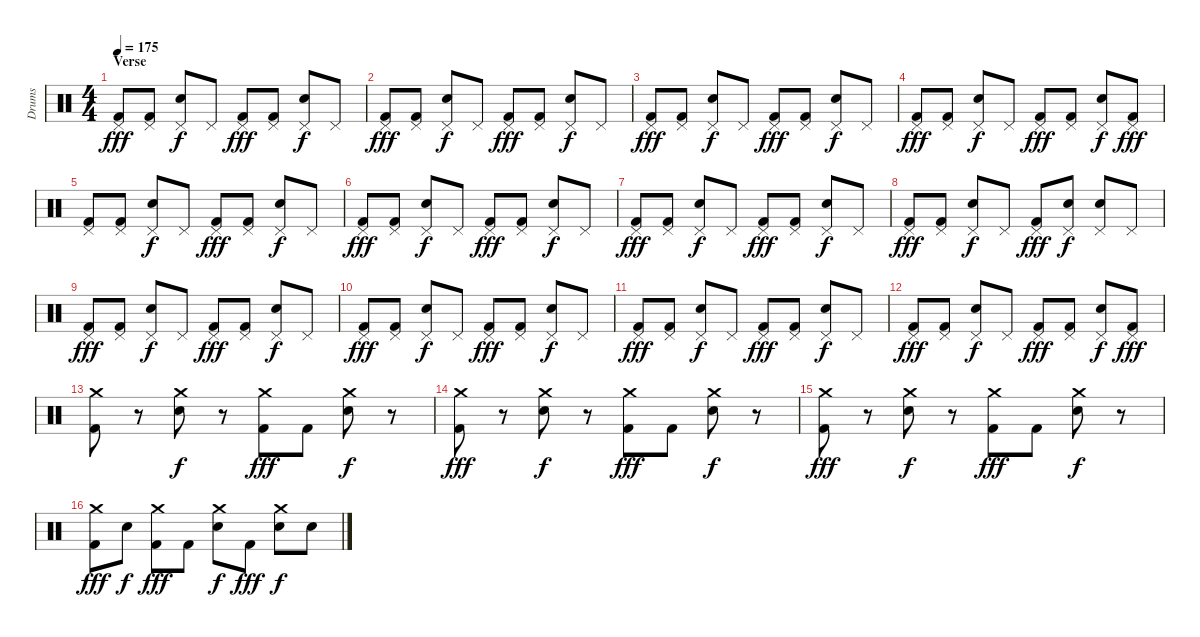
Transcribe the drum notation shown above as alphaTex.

\track ("Drums" "Drums") {instrument percussion}
\staff {score}
\articulation defaults
\ts (4 4)
\section ("" "Verse")
\tempo 175
\clef neutral
\ks c
("Pedal Hi-Hat (hit)" "Kick (hit) 2").8{dy fff} ("Pedal Hi-Hat (hit)" "Kick (hit) 2").8 ("Pedal Hi-Hat (hit)" "Electric Snare (hit)").8{dy f} "Pedal Hi-Hat (hit)".8 ("Pedal Hi-Hat (hit)" "Kick (hit) 2").8{dy fff} ("Pedal Hi-Hat (hit)" "Kick (hit) 2").8 ("Pedal Hi-Hat (hit)" "Electric Snare (hit)").8{dy f} "Pedal Hi-Hat (hit)".8 |
("Pedal Hi-Hat (hit)" "Kick (hit) 2").8{dy fff} ("Pedal Hi-Hat (hit)" "Kick (hit) 2").8 ("Pedal Hi-Hat (hit)" "Electric Snare (hit)").8{dy f} "Pedal Hi-Hat (hit)".8 ("Pedal Hi-Hat (hit)" "Kick (hit) 2").8{dy fff} ("Pedal Hi-Hat (hit)" "Kick (hit) 2").8 ("Pedal Hi-Hat (hit)" "Electric Snare (hit)").8{dy f} "Pedal Hi-Hat (hit)".8 |
("Pedal Hi-Hat (hit)" "Kick (hit) 2").8{dy fff} ("Pedal Hi-Hat (hit)" "Kick (hit) 2").8 ("Pedal Hi-Hat (hit)" "Electric Snare (hit)").8{dy f} "Pedal Hi-Hat (hit)".8 ("Pedal Hi-Hat (hit)" "Kick (hit) 2").8{dy fff} ("Pedal Hi-Hat (hit)" "Kick (hit) 2").8 ("Pedal Hi-Hat (hit)" "Electric Snare (hit)").8{dy f} "Pedal Hi-Hat (hit)".8 |
("Pedal Hi-Hat (hit)" "Kick (hit) 2").8{dy fff} ("Pedal Hi-Hat (hit)" "Kick (hit) 2").8 ("Pedal Hi-Hat (hit)" "Electric Snare (hit)").8{dy f} "Pedal Hi-Hat (hit)".8 ("Pedal Hi-Hat (hit)" "Kick (hit) 2").8{dy fff} ("Pedal Hi-Hat (hit)" "Kick (hit) 2").8 ("Pedal Hi-Hat (hit)" "Electric Snare (hit)").8{dy f} ("Pedal Hi-Hat (hit)" "Kick (hit) 2").8{dy fff} |
("Pedal Hi-Hat (hit)" "Kick (hit) 2").8 ("Pedal Hi-Hat (hit)" "Kick (hit) 2").8 ("Pedal Hi-Hat (hit)" "Electric Snare (hit)").8{dy f} "Pedal Hi-Hat (hit)".8 ("Pedal Hi-Hat (hit)" "Kick (hit) 2").8{dy fff} ("Pedal Hi-Hat (hit)" "Kick (hit) 2").8 ("Pedal Hi-Hat (hit)" "Electric Snare (hit)").8{dy f} "Pedal Hi-Hat (hit)".8 |
("Pedal Hi-Hat (hit)" "Kick (hit) 2").8{dy fff} ("Pedal Hi-Hat (hit)" "Kick (hit) 2").8 ("Pedal Hi-Hat (hit)" "Electric Snare (hit)").8{dy f} "Pedal Hi-Hat (hit)".8 ("Pedal Hi-Hat (hit)" "Kick (hit) 2").8{dy fff} ("Pedal Hi-Hat (hit)" "Kick (hit) 2").8 ("Pedal Hi-Hat (hit)" "Electric Snare (hit)").8{dy f} "Pedal Hi-Hat (hit)".8 |
("Pedal Hi-Hat (hit)" "Kick (hit) 2").8{dy fff} ("Pedal Hi-Hat (hit)" "Kick (hit) 2").8 ("Pedal Hi-Hat (hit)" "Electric Snare (hit)").8{dy f} "Pedal Hi-Hat (hit)".8 ("Pedal Hi-Hat (hit)" "Kick (hit) 2").8{dy fff} ("Pedal Hi-Hat (hit)" "Kick (hit) 2").8 ("Pedal Hi-Hat (hit)" "Electric Snare (hit)").8{dy f} "Pedal Hi-Hat (hit)".8 |
("Pedal Hi-Hat (hit)" "Kick (hit) 2").8{dy fff} ("Pedal Hi-Hat (hit)" "Kick (hit) 2").8 ("Pedal Hi-Hat (hit)" "Electric Snare (hit)").8{dy f} "Pedal Hi-Hat (hit)".8 ("Pedal Hi-Hat (hit)" "Kick (hit) 2").8{dy fff} ("Pedal Hi-Hat (hit)" "Electric Snare (hit)").8{dy f} ("Pedal Hi-Hat (hit)" "Electric Snare (hit)").8 "Pedal Hi-Hat (hit)".8 |
("Pedal Hi-Hat (hit)" "Kick (hit) 2").8{dy fff} ("Pedal Hi-Hat (hit)" "Kick (hit) 2").8 ("Pedal Hi-Hat (hit)" "Electric Snare (hit)").8{dy f} "Pedal Hi-Hat (hit)".8 ("Pedal Hi-Hat (hit)" "Kick (hit) 2").8{dy fff} ("Pedal Hi-Hat (hit)" "Kick (hit) 2").8 ("Pedal Hi-Hat (hit)" "Electric Snare (hit)").8{dy f} "Pedal Hi-Hat (hit)".8 |
("Pedal Hi-Hat (hit)" "Kick (hit) 2").8{dy fff} ("Pedal Hi-Hat (hit)" "Kick (hit) 2").8 ("Pedal Hi-Hat (hit)" "Electric Snare (hit)").8{dy f} "Pedal Hi-Hat (hit)".8 ("Pedal Hi-Hat (hit)" "Kick (hit) 2").8{dy fff} ("Pedal Hi-Hat (hit)" "Kick (hit) 2").8 ("Pedal Hi-Hat (hit)" "Electric Snare (hit)").8{dy f} "Pedal Hi-Hat (hit)".8 |
("Pedal Hi-Hat (hit)" "Kick (hit) 2").8{dy fff} ("Pedal Hi-Hat (hit)" "Kick (hit) 2").8 ("Pedal Hi-Hat (hit)" "Electric Snare (hit)").8{dy f} "Pedal Hi-Hat (hit)".8 ("Pedal Hi-Hat (hit)" "Kick (hit) 2").8{dy fff} ("Pedal Hi-Hat (hit)" "Kick (hit) 2").8 ("Pedal Hi-Hat (hit)" "Electric Snare (hit)").8{dy f} "Pedal Hi-Hat (hit)".8 |
("Pedal Hi-Hat (hit)" "Kick (hit) 2").8{dy fff} ("Pedal Hi-Hat (hit)" "Kick (hit) 2").8 ("Pedal Hi-Hat (hit)" "Electric Snare (hit)").8{dy f} "Pedal Hi-Hat (hit)".8 ("Pedal Hi-Hat (hit)" "Kick (hit) 2").8{dy fff} ("Pedal Hi-Hat (hit)" "Kick (hit) 2").8 ("Pedal Hi-Hat (hit)" "Electric Snare (hit)").8{dy f} ("Pedal Hi-Hat (hit)" "Kick (hit) 2").8{dy fff} |
("Crash medium (hit)" "Kick (hit) 2").8 r.8 ("Crash medium (hit)" "Electric Snare (hit)").8{dy f} r.8 ("Crash medium (hit)" "Kick (hit) 2").8{dy fff} "Kick (hit) 2".8 ("Crash medium (hit)" "Electric Snare (hit)").8{dy f} r.8 |
("Crash medium (hit)" "Kick (hit) 2").8{dy fff} r.8 ("Crash medium (hit)" "Electric Snare (hit)").8{dy f} r.8 ("Crash medium (hit)" "Kick (hit) 2").8{dy fff} "Kick (hit) 2".8 ("Crash medium (hit)" "Electric Snare (hit)").8{dy f} r.8 |
("Crash medium (hit)" "Kick (hit) 2").8{dy fff} r.8 ("Crash medium (hit)" "Electric Snare (hit)").8{dy f} r.8 ("Crash medium (hit)" "Kick (hit) 2").8{dy fff} "Kick (hit) 2".8 ("Crash medium (hit)" "Electric Snare (hit)").8{dy f} r.8 |
("Crash medium (hit)" "Kick (hit) 2").8{dy fff} "Electric Snare (hit)".8{dy f} ("Crash medium (hit)" "Kick (hit) 2").8{dy fff} "Kick (hit) 2".8 ("Crash medium (hit)" "Electric Snare (hit)").8{dy f} "Kick (hit) 2".8{dy fff} ("Crash medium (hit)" "Electric Snare (hit)").8{dy f} "Electric Snare (hit)".8
